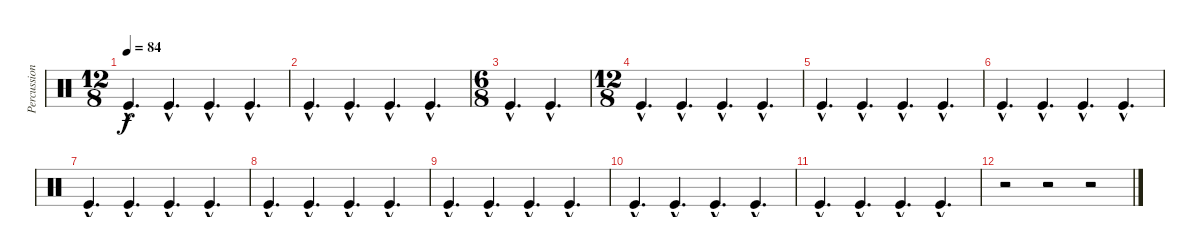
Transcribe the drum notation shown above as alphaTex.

\track ("Percussion" "Percussion") {instrument percussion}
\staff {score}
\articulation defaults
\ts (12 8)
\tempo 84
\clef neutral
\ks c "Kick (hit)"{hac}.4{d dy f} "Kick (hit)"{hac}.4{d} "Kick (hit)"{hac}.4{d} "Kick (hit)"{hac}.4{d}
|
"Kick (hit)"{hac}.4{d} "Kick (hit)"{hac}.4{d} "Kick (hit)"{hac}.4{d} "Kick (hit)"{hac}.4{d} |
\ts (6 8)
"Kick (hit)"{hac}.4{d} "Kick (hit)"{hac}.4{d} |
\ts (12 8)
"Kick (hit)"{hac}.4{d} "Kick (hit)"{hac}.4{d} "Kick (hit)"{hac}.4{d} "Kick (hit)"{hac}.4{d} |
"Kick (hit)"{hac}.4{d} "Kick (hit)"{hac}.4{d} "Kick (hit)"{hac}.4{d} "Kick (hit)"{hac}.4{d} |
"Kick (hit)"{hac}.4{d} "Kick (hit)"{hac}.4{d} "Kick (hit)"{hac}.4{d} "Kick (hit)"{hac}.4{d} |
"Kick (hit)"{hac}.4{d} "Kick (hit)"{hac}.4{d} "Kick (hit)"{hac}.4{d} "Kick (hit)"{hac}.4{d} |
"Kick (hit)"{hac}.4{d} "Kick (hit)"{hac}.4{d} "Kick (hit)"{hac}.4{d} "Kick (hit)"{hac}.4{d} |
"Kick (hit)"{hac}.4{d} "Kick (hit)"{hac}.4{d} "Kick (hit)"{hac}.4{d} "Kick (hit)"{hac}.4{d} |
"Kick (hit)"{hac}.4{d} "Kick (hit)"{hac}.4{d} "Kick (hit)"{hac}.4{d} "Kick (hit)"{hac}.4{d} |
"Kick (hit)"{hac}.4{d} "Kick (hit)"{hac}.4{d} "Kick (hit)"{hac}.4{d} "Kick (hit)"{hac}.4{d} |
r.2 r.2 r.2
